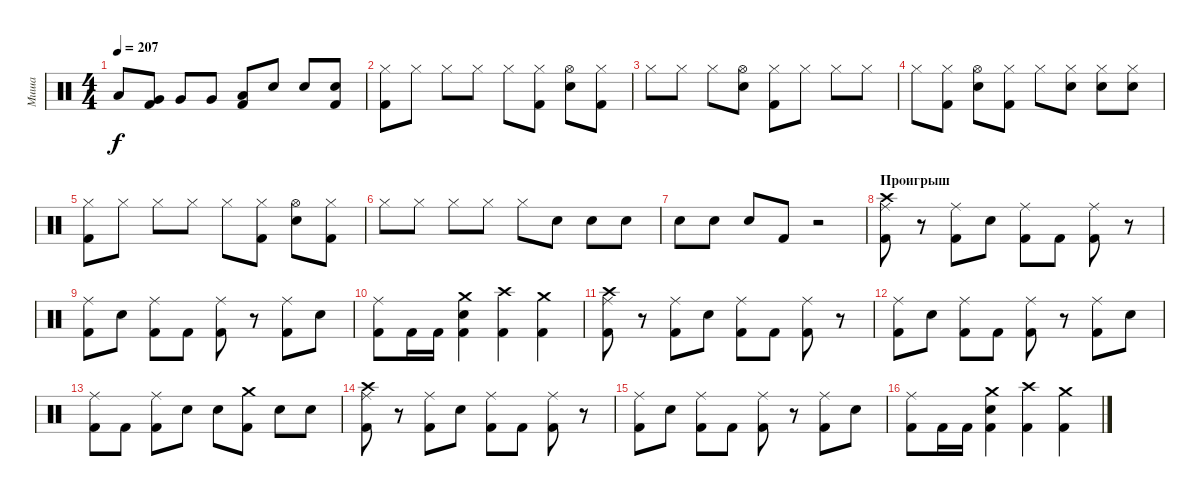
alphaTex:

\track ("Миша" "Миша") {instrument percussion}
\staff {score}
\articulation defaults
\ts (4 4)
\tempo 207
\clef neutral
\ks c "Low Tom (hit)".8{dy f}
("Kick (hit) 2" "Very Low Tom (hit)").8 "Very Low Tom (hit)".8 "Very Low Tom (hit)".8 ("Kick (hit) 2" "Low Floor Tom (hit)").8 "Snare (hit) 2".8 "Snare (hit) 2".8 ("Kick (hit) 2" "Snare (hit) 2").8 |
("Kick (hit) 2" "Hi-Hat (closed)").8 "Hi-Hat (closed)".8 "Hi-Hat (closed)".8 "Hi-Hat (closed)".8 "Hi-Hat (closed)".8 ("Kick (hit) 2" "Hi-Hat (closed)").8 ("Snare (hit) 2" "Hi-Hat (open)").8 ("Kick (hit) 2" "Hi-Hat (closed)").8 |
"Hi-Hat (closed)".8 "Hi-Hat (closed)".8 "Hi-Hat (closed)".8 ("Snare (hit) 2" "Hi-Hat (open)").8 ("Kick (hit) 2" "Hi-Hat (closed)").8 "Hi-Hat (closed)".8 "Hi-Hat (closed)".8 "Hi-Hat (closed)".8 |
"Hi-Hat (closed)".8 ("Kick (hit) 2" "Hi-Hat (closed)").8 ("Snare (hit) 2" "Hi-Hat (open)").8 ("Kick (hit) 2" "Hi-Hat (closed)").8 "Hi-Hat (closed)".8 ("Snare (hit) 2" "Hi-Hat (closed)").8 ("Snare (hit) 2" "Hi-Hat (closed)").8 ("Snare (hit) 2" "Hi-Hat (closed)").8 |
("Kick (hit) 2" "Hi-Hat (closed)").8 "Hi-Hat (closed)".8 "Hi-Hat (closed)".8 "Hi-Hat (closed)".8 "Hi-Hat (closed)".8 ("Kick (hit) 2" "Hi-Hat (closed)").8 ("Snare (hit) 2" "Hi-Hat (open)").8 ("Kick (hit) 2" "Hi-Hat (closed)").8 |
"Hi-Hat (closed)".8 "Hi-Hat (closed)".8 "Hi-Hat (closed)".8 "Hi-Hat (closed)".8 "Hi-Hat (closed)".8 "Snare (hit) 2".8 "Snare (hit) 2".8 "Snare (hit) 2".8 |
"Snare (hit) 2".8 "Snare (hit) 2".8 "Snare (hit) 2".8 "Kick (hit) 2".8 r.2 |
\section ("" "Проигрыш")
("Kick (hit) 2" "Ride (middle)" "Crash high (hit)").8 r.8 ("Kick (hit) 2" "Ride (middle)").8 "Snare (hit) 2".8 ("Kick (hit) 2" "Ride (middle)").8 "Kick (hit) 2".8 ("Kick (hit) 2" "Ride (middle)").8 r.8 |
("Kick (hit) 2" "Ride (middle)").8 "Snare (hit) 2".8 ("Kick (hit) 2" "Ride (middle)").8 "Kick (hit) 2".8 ("Kick (hit) 2" "Ride (middle)").8 r.8 ("Kick (hit) 2" "Ride (middle)").8 "Snare (hit) 2".8 |
("Kick (hit) 2" "Ride (middle)").8 "Kick (hit) 2".16 "Kick (hit) 2".16 ("Kick (hit) 2" "Snare (hit) 2" "Crash medium (hit)").4 ("Kick (hit) 2" "Crash high (hit)").4 ("Kick (hit) 2" "Crash medium (hit)").4 |
("Kick (hit) 2" "Ride (middle)" "Crash high (hit)").8 r.8 ("Kick (hit) 2" "Ride (middle)").8 "Snare (hit) 2".8 ("Kick (hit) 2" "Ride (middle)").8 "Kick (hit) 2".8 ("Kick (hit) 2" "Ride (middle)").8 r.8 |
("Kick (hit) 2" "Ride (middle)").8 "Snare (hit) 2".8 ("Kick (hit) 2" "Ride (middle)").8 "Kick (hit) 2".8 ("Kick (hit) 2" "Ride (middle)").8 r.8 ("Kick (hit) 2" "Ride (middle)").8 "Snare (hit) 2".8 |
("Kick (hit) 2" "Ride (middle)").8 "Kick (hit) 2".8 ("Kick (hit) 2" "Ride (middle)").8 "Snare (hit) 2".8 "Snare (hit) 2".8 ("Kick (hit) 2" "Crash medium (hit)").8 "Snare (hit) 2".8 "Snare (hit) 2".8 |
("Kick (hit) 2" "Ride (middle)" "Crash high (hit)").8 r.8 ("Kick (hit) 2" "Ride (middle)").8 "Snare (hit) 2".8 ("Kick (hit) 2" "Ride (middle)").8 "Kick (hit) 2".8 ("Kick (hit) 2" "Ride (middle)").8 r.8 |
("Kick (hit) 2" "Ride (middle)").8 "Snare (hit) 2".8 ("Kick (hit) 2" "Ride (middle)").8 "Kick (hit) 2".8 ("Kick (hit) 2" "Ride (middle)").8 r.8 ("Kick (hit) 2" "Ride (middle)").8 "Snare (hit) 2".8 |
("Kick (hit) 2" "Ride (middle)").8 "Kick (hit) 2".16 "Kick (hit) 2".16 ("Kick (hit) 2" "Snare (hit) 2" "Crash medium (hit)").4 ("Kick (hit) 2" "Crash high (hit)").4 ("Kick (hit) 2" "Crash medium (hit)").4
